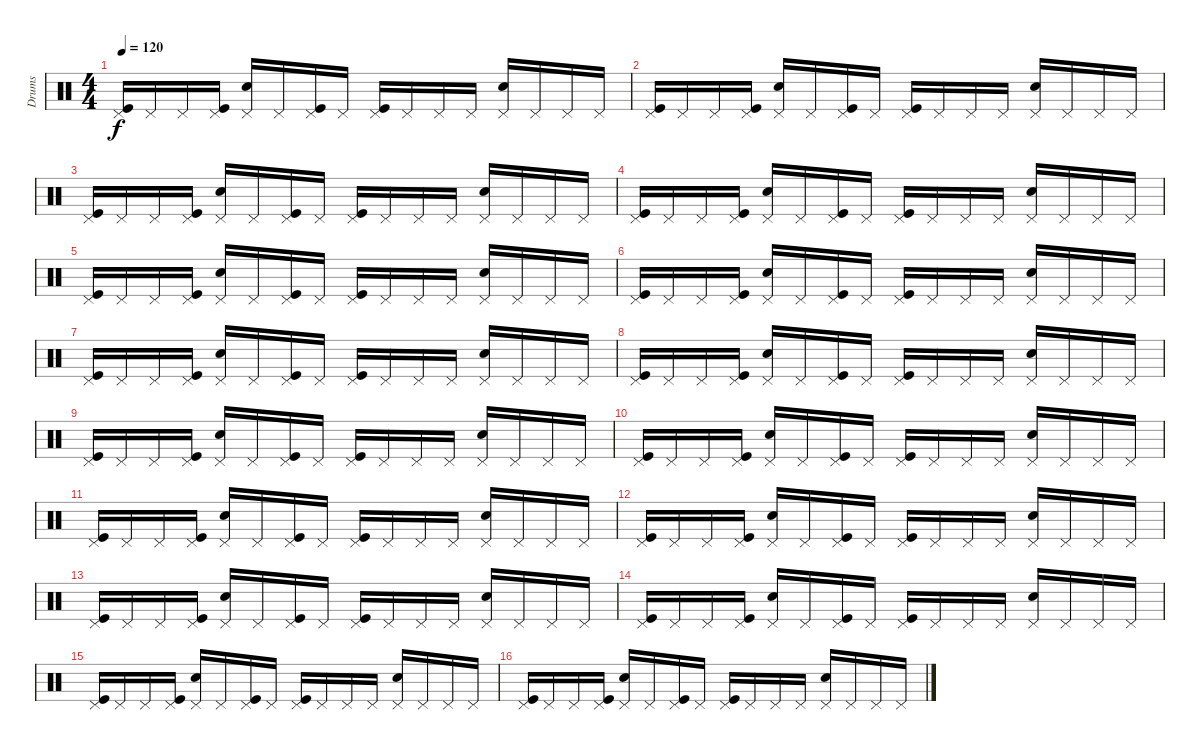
\track ("Drums" "Drums") {instrument percussion}
\staff {score}
\articulation defaults
\ts (4 4)
\tempo 120
\clef neutral
\ks c
("Pedal Hi-Hat (hit)" "Kick (hit)").16{dy f} "Pedal Hi-Hat (hit)".16 "Pedal Hi-Hat (hit)".16 ("Pedal Hi-Hat (hit)" "Kick (hit)").16 ("Pedal Hi-Hat (hit)" "Snare (hit) 2").16 "Pedal Hi-Hat (hit)".16 ("Pedal Hi-Hat (hit)" "Kick (hit)").16 "Pedal Hi-Hat (hit)".16 ("Pedal Hi-Hat (hit)" "Kick (hit)").16 "Pedal Hi-Hat (hit)".16 "Pedal Hi-Hat (hit)".16 "Pedal Hi-Hat (hit)".16 ("Pedal Hi-Hat (hit)" "Snare (hit) 2").16 "Pedal Hi-Hat (hit)".16 "Pedal Hi-Hat (hit)".16 "Pedal Hi-Hat (hit)".16 |
("Pedal Hi-Hat (hit)" "Kick (hit)").16 "Pedal Hi-Hat (hit)".16 "Pedal Hi-Hat (hit)".16 ("Pedal Hi-Hat (hit)" "Kick (hit)").16 ("Pedal Hi-Hat (hit)" "Snare (hit) 2").16 "Pedal Hi-Hat (hit)".16 ("Pedal Hi-Hat (hit)" "Kick (hit)").16 "Pedal Hi-Hat (hit)".16 ("Pedal Hi-Hat (hit)" "Kick (hit)").16 "Pedal Hi-Hat (hit)".16 "Pedal Hi-Hat (hit)".16 "Pedal Hi-Hat (hit)".16 ("Pedal Hi-Hat (hit)" "Snare (hit) 2").16 "Pedal Hi-Hat (hit)".16 "Pedal Hi-Hat (hit)".16 "Pedal Hi-Hat (hit)".16 |
("Pedal Hi-Hat (hit)" "Kick (hit)").16 "Pedal Hi-Hat (hit)".16 "Pedal Hi-Hat (hit)".16 ("Pedal Hi-Hat (hit)" "Kick (hit)").16 ("Pedal Hi-Hat (hit)" "Snare (hit) 2").16 "Pedal Hi-Hat (hit)".16 ("Pedal Hi-Hat (hit)" "Kick (hit)").16 "Pedal Hi-Hat (hit)".16 ("Pedal Hi-Hat (hit)" "Kick (hit)").16 "Pedal Hi-Hat (hit)".16 "Pedal Hi-Hat (hit)".16 "Pedal Hi-Hat (hit)".16 ("Pedal Hi-Hat (hit)" "Snare (hit) 2").16 "Pedal Hi-Hat (hit)".16 "Pedal Hi-Hat (hit)".16 "Pedal Hi-Hat (hit)".16 |
("Pedal Hi-Hat (hit)" "Kick (hit)").16 "Pedal Hi-Hat (hit)".16 "Pedal Hi-Hat (hit)".16 ("Pedal Hi-Hat (hit)" "Kick (hit)").16 ("Pedal Hi-Hat (hit)" "Snare (hit) 2").16 "Pedal Hi-Hat (hit)".16 ("Pedal Hi-Hat (hit)" "Kick (hit)").16 "Pedal Hi-Hat (hit)".16 ("Pedal Hi-Hat (hit)" "Kick (hit)").16 "Pedal Hi-Hat (hit)".16 "Pedal Hi-Hat (hit)".16 "Pedal Hi-Hat (hit)".16 ("Pedal Hi-Hat (hit)" "Snare (hit) 2").16 "Pedal Hi-Hat (hit)".16 "Pedal Hi-Hat (hit)".16 "Pedal Hi-Hat (hit)".16 |
("Pedal Hi-Hat (hit)" "Kick (hit)").16 "Pedal Hi-Hat (hit)".16 "Pedal Hi-Hat (hit)".16 ("Pedal Hi-Hat (hit)" "Kick (hit)").16 ("Pedal Hi-Hat (hit)" "Snare (hit) 2").16 "Pedal Hi-Hat (hit)".16 ("Pedal Hi-Hat (hit)" "Kick (hit)").16 "Pedal Hi-Hat (hit)".16 ("Pedal Hi-Hat (hit)" "Kick (hit)").16 "Pedal Hi-Hat (hit)".16 "Pedal Hi-Hat (hit)".16 "Pedal Hi-Hat (hit)".16 ("Pedal Hi-Hat (hit)" "Snare (hit) 2").16 "Pedal Hi-Hat (hit)".16 "Pedal Hi-Hat (hit)".16 "Pedal Hi-Hat (hit)".16 |
("Pedal Hi-Hat (hit)" "Kick (hit)").16 "Pedal Hi-Hat (hit)".16 "Pedal Hi-Hat (hit)".16 ("Pedal Hi-Hat (hit)" "Kick (hit)").16 ("Pedal Hi-Hat (hit)" "Snare (hit) 2").16 "Pedal Hi-Hat (hit)".16 ("Pedal Hi-Hat (hit)" "Kick (hit)").16 "Pedal Hi-Hat (hit)".16 ("Pedal Hi-Hat (hit)" "Kick (hit)").16 "Pedal Hi-Hat (hit)".16 "Pedal Hi-Hat (hit)".16 "Pedal Hi-Hat (hit)".16 ("Pedal Hi-Hat (hit)" "Snare (hit) 2").16 "Pedal Hi-Hat (hit)".16 "Pedal Hi-Hat (hit)".16 "Pedal Hi-Hat (hit)".16 |
("Pedal Hi-Hat (hit)" "Kick (hit)").16 "Pedal Hi-Hat (hit)".16 "Pedal Hi-Hat (hit)".16 ("Pedal Hi-Hat (hit)" "Kick (hit)").16 ("Pedal Hi-Hat (hit)" "Snare (hit) 2").16 "Pedal Hi-Hat (hit)".16 ("Pedal Hi-Hat (hit)" "Kick (hit)").16 "Pedal Hi-Hat (hit)".16 ("Pedal Hi-Hat (hit)" "Kick (hit)").16 "Pedal Hi-Hat (hit)".16 "Pedal Hi-Hat (hit)".16 "Pedal Hi-Hat (hit)".16 ("Pedal Hi-Hat (hit)" "Snare (hit) 2").16 "Pedal Hi-Hat (hit)".16 "Pedal Hi-Hat (hit)".16 "Pedal Hi-Hat (hit)".16 |
("Pedal Hi-Hat (hit)" "Kick (hit)").16 "Pedal Hi-Hat (hit)".16 "Pedal Hi-Hat (hit)".16 ("Pedal Hi-Hat (hit)" "Kick (hit)").16 ("Pedal Hi-Hat (hit)" "Snare (hit) 2").16 "Pedal Hi-Hat (hit)".16 ("Pedal Hi-Hat (hit)" "Kick (hit)").16 "Pedal Hi-Hat (hit)".16 ("Pedal Hi-Hat (hit)" "Kick (hit)").16 "Pedal Hi-Hat (hit)".16 "Pedal Hi-Hat (hit)".16 "Pedal Hi-Hat (hit)".16 ("Pedal Hi-Hat (hit)" "Snare (hit) 2").16 "Pedal Hi-Hat (hit)".16 "Pedal Hi-Hat (hit)".16 "Pedal Hi-Hat (hit)".16 |
("Pedal Hi-Hat (hit)" "Kick (hit)").16 "Pedal Hi-Hat (hit)".16 "Pedal Hi-Hat (hit)".16 ("Pedal Hi-Hat (hit)" "Kick (hit)").16 ("Pedal Hi-Hat (hit)" "Snare (hit) 2").16 "Pedal Hi-Hat (hit)".16 ("Pedal Hi-Hat (hit)" "Kick (hit)").16 "Pedal Hi-Hat (hit)".16 ("Pedal Hi-Hat (hit)" "Kick (hit)").16 "Pedal Hi-Hat (hit)".16 "Pedal Hi-Hat (hit)".16 "Pedal Hi-Hat (hit)".16 ("Pedal Hi-Hat (hit)" "Snare (hit) 2").16 "Pedal Hi-Hat (hit)".16 "Pedal Hi-Hat (hit)".16 "Pedal Hi-Hat (hit)".16 |
("Pedal Hi-Hat (hit)" "Kick (hit)").16 "Pedal Hi-Hat (hit)".16 "Pedal Hi-Hat (hit)".16 ("Pedal Hi-Hat (hit)" "Kick (hit)").16 ("Pedal Hi-Hat (hit)" "Snare (hit) 2").16 "Pedal Hi-Hat (hit)".16 ("Pedal Hi-Hat (hit)" "Kick (hit)").16 "Pedal Hi-Hat (hit)".16 ("Pedal Hi-Hat (hit)" "Kick (hit)").16 "Pedal Hi-Hat (hit)".16 "Pedal Hi-Hat (hit)".16 "Pedal Hi-Hat (hit)".16 ("Pedal Hi-Hat (hit)" "Snare (hit) 2").16 "Pedal Hi-Hat (hit)".16 "Pedal Hi-Hat (hit)".16 "Pedal Hi-Hat (hit)".16 |
("Pedal Hi-Hat (hit)" "Kick (hit)").16 "Pedal Hi-Hat (hit)".16 "Pedal Hi-Hat (hit)".16 ("Pedal Hi-Hat (hit)" "Kick (hit)").16 ("Pedal Hi-Hat (hit)" "Snare (hit) 2").16 "Pedal Hi-Hat (hit)".16 ("Pedal Hi-Hat (hit)" "Kick (hit)").16 "Pedal Hi-Hat (hit)".16 ("Pedal Hi-Hat (hit)" "Kick (hit)").16 "Pedal Hi-Hat (hit)".16 "Pedal Hi-Hat (hit)".16 "Pedal Hi-Hat (hit)".16 ("Pedal Hi-Hat (hit)" "Snare (hit) 2").16 "Pedal Hi-Hat (hit)".16 "Pedal Hi-Hat (hit)".16 "Pedal Hi-Hat (hit)".16 |
("Pedal Hi-Hat (hit)" "Kick (hit)").16 "Pedal Hi-Hat (hit)".16 "Pedal Hi-Hat (hit)".16 ("Pedal Hi-Hat (hit)" "Kick (hit)").16 ("Pedal Hi-Hat (hit)" "Snare (hit) 2").16 "Pedal Hi-Hat (hit)".16 ("Pedal Hi-Hat (hit)" "Kick (hit)").16 "Pedal Hi-Hat (hit)".16 ("Pedal Hi-Hat (hit)" "Kick (hit)").16 "Pedal Hi-Hat (hit)".16 "Pedal Hi-Hat (hit)".16 "Pedal Hi-Hat (hit)".16 ("Pedal Hi-Hat (hit)" "Snare (hit) 2").16 "Pedal Hi-Hat (hit)".16 "Pedal Hi-Hat (hit)".16 "Pedal Hi-Hat (hit)".16 |
("Pedal Hi-Hat (hit)" "Kick (hit)").16 "Pedal Hi-Hat (hit)".16 "Pedal Hi-Hat (hit)".16 ("Pedal Hi-Hat (hit)" "Kick (hit)").16 ("Pedal Hi-Hat (hit)" "Snare (hit) 2").16 "Pedal Hi-Hat (hit)".16 ("Pedal Hi-Hat (hit)" "Kick (hit)").16 "Pedal Hi-Hat (hit)".16 ("Pedal Hi-Hat (hit)" "Kick (hit)").16 "Pedal Hi-Hat (hit)".16 "Pedal Hi-Hat (hit)".16 "Pedal Hi-Hat (hit)".16 ("Pedal Hi-Hat (hit)" "Snare (hit) 2").16 "Pedal Hi-Hat (hit)".16 "Pedal Hi-Hat (hit)".16 "Pedal Hi-Hat (hit)".16 |
("Pedal Hi-Hat (hit)" "Kick (hit)").16 "Pedal Hi-Hat (hit)".16 "Pedal Hi-Hat (hit)".16 ("Pedal Hi-Hat (hit)" "Kick (hit)").16 ("Pedal Hi-Hat (hit)" "Snare (hit) 2").16 "Pedal Hi-Hat (hit)".16 ("Pedal Hi-Hat (hit)" "Kick (hit)").16 "Pedal Hi-Hat (hit)".16 ("Pedal Hi-Hat (hit)" "Kick (hit)").16 "Pedal Hi-Hat (hit)".16 "Pedal Hi-Hat (hit)".16 "Pedal Hi-Hat (hit)".16 ("Pedal Hi-Hat (hit)" "Snare (hit) 2").16 "Pedal Hi-Hat (hit)".16 "Pedal Hi-Hat (hit)".16 "Pedal Hi-Hat (hit)".16 |
("Pedal Hi-Hat (hit)" "Kick (hit)").16 "Pedal Hi-Hat (hit)".16 "Pedal Hi-Hat (hit)".16 ("Pedal Hi-Hat (hit)" "Kick (hit)").16 ("Pedal Hi-Hat (hit)" "Snare (hit) 2").16 "Pedal Hi-Hat (hit)".16 ("Pedal Hi-Hat (hit)" "Kick (hit)").16 "Pedal Hi-Hat (hit)".16 ("Pedal Hi-Hat (hit)" "Kick (hit)").16 "Pedal Hi-Hat (hit)".16 "Pedal Hi-Hat (hit)".16 "Pedal Hi-Hat (hit)".16 ("Pedal Hi-Hat (hit)" "Snare (hit) 2").16 "Pedal Hi-Hat (hit)".16 "Pedal Hi-Hat (hit)".16 "Pedal Hi-Hat (hit)".16 |
("Pedal Hi-Hat (hit)" "Kick (hit)").16 "Pedal Hi-Hat (hit)".16 "Pedal Hi-Hat (hit)".16 ("Pedal Hi-Hat (hit)" "Kick (hit)").16 ("Pedal Hi-Hat (hit)" "Snare (hit) 2").16 "Pedal Hi-Hat (hit)".16 ("Pedal Hi-Hat (hit)" "Kick (hit)").16 "Pedal Hi-Hat (hit)".16 ("Pedal Hi-Hat (hit)" "Kick (hit)").16 "Pedal Hi-Hat (hit)".16 "Pedal Hi-Hat (hit)".16 "Pedal Hi-Hat (hit)".16 ("Pedal Hi-Hat (hit)" "Snare (hit) 2").16 "Pedal Hi-Hat (hit)".16 "Pedal Hi-Hat (hit)".16 "Pedal Hi-Hat (hit)".16
